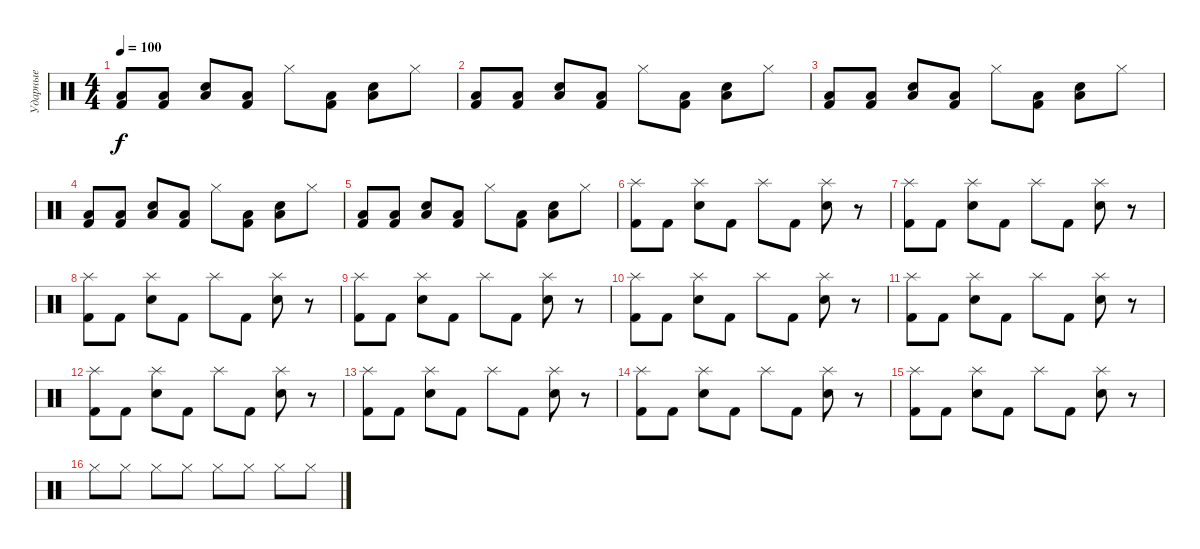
\track ("Ударные" "Ударные") {instrument percussion}
\staff {score}
\articulation defaults
\ts (4 4)
\tempo 100
\clef neutral
\ks c
("Kick (hit) 2" "Low Floor Tom (hit)").8{dy f} ("Kick (hit) 2" "Low Floor Tom (hit)").8 ("Snare (hit) 2" "Low Floor Tom (hit)").8 ("Kick (hit) 2" "Low Floor Tom (hit)").8 "Hi-Hat (closed)".8 ("Kick (hit) 2" "Low Floor Tom (hit)").8 ("Snare (hit) 2" "Low Floor Tom (hit)").8 "Hi-Hat (closed)".8 |
("Kick (hit) 2" "Low Floor Tom (hit)").8 ("Kick (hit) 2" "Low Floor Tom (hit)").8 ("Snare (hit) 2" "Low Floor Tom (hit)").8 ("Kick (hit) 2" "Low Floor Tom (hit)").8 "Hi-Hat (closed)".8 ("Kick (hit) 2" "Low Floor Tom (hit)").8 ("Snare (hit) 2" "Low Floor Tom (hit)").8 "Hi-Hat (closed)".8 |
("Kick (hit) 2" "Low Floor Tom (hit)").8 ("Kick (hit) 2" "Low Floor Tom (hit)").8 ("Snare (hit) 2" "Low Floor Tom (hit)").8 ("Kick (hit) 2" "Low Floor Tom (hit)").8 "Hi-Hat (closed)".8 ("Kick (hit) 2" "Low Floor Tom (hit)").8 ("Snare (hit) 2" "Low Floor Tom (hit)").8 "Hi-Hat (closed)".8 |
("Kick (hit) 2" "Low Floor Tom (hit)").8 ("Kick (hit) 2" "Low Floor Tom (hit)").8 ("Snare (hit) 2" "Low Floor Tom (hit)").8 ("Kick (hit) 2" "Low Floor Tom (hit)").8 "Hi-Hat (closed)".8 ("Kick (hit) 2" "Low Floor Tom (hit)").8 ("Snare (hit) 2" "Low Floor Tom (hit)").8 "Hi-Hat (closed)".8 |
("Kick (hit) 2" "Low Floor Tom (hit)").8 ("Kick (hit) 2" "Low Floor Tom (hit)").8 ("Snare (hit) 2" "Low Floor Tom (hit)").8 ("Kick (hit) 2" "Low Floor Tom (hit)").8 "Hi-Hat (closed)".8 ("Kick (hit) 2" "Low Floor Tom (hit)").8 ("Snare (hit) 2" "Low Floor Tom (hit)").8 "Hi-Hat (closed)".8 |
("Kick (hit) 2" "Splash (hit)").8 "Kick (hit) 2".8 ("Snare (hit) 2" "Splash (hit)").8 "Kick (hit) 2".8 "Splash (hit)".8 "Kick (hit) 2".8 ("Snare (hit) 2" "Splash (hit)").8 r.8 |
("Kick (hit) 2" "Splash (hit)").8 "Kick (hit) 2".8 ("Snare (hit) 2" "Splash (hit)").8 "Kick (hit) 2".8 "Splash (hit)".8 "Kick (hit) 2".8 ("Snare (hit) 2" "Splash (hit)").8 r.8 |
("Kick (hit) 2" "Splash (hit)").8 "Kick (hit) 2".8 ("Snare (hit) 2" "Splash (hit)").8 "Kick (hit) 2".8 "Splash (hit)".8 "Kick (hit) 2".8 ("Snare (hit) 2" "Splash (hit)").8 r.8 |
("Kick (hit) 2" "Splash (hit)").8 "Kick (hit) 2".8 ("Snare (hit) 2" "Splash (hit)").8 "Kick (hit) 2".8 "Splash (hit)".8 "Kick (hit) 2".8 ("Snare (hit) 2" "Splash (hit)").8 r.8 |
("Kick (hit) 2" "Splash (hit)").8 "Kick (hit) 2".8 ("Snare (hit) 2" "Splash (hit)").8 "Kick (hit) 2".8 "Splash (hit)".8 "Kick (hit) 2".8 ("Snare (hit) 2" "Splash (hit)").8 r.8 |
("Kick (hit) 2" "Splash (hit)").8 "Kick (hit) 2".8 ("Snare (hit) 2" "Splash (hit)").8 "Kick (hit) 2".8 "Splash (hit)".8 "Kick (hit) 2".8 ("Snare (hit) 2" "Splash (hit)").8 r.8 |
("Kick (hit) 2" "Splash (hit)").8 "Kick (hit) 2".8 ("Snare (hit) 2" "Splash (hit)").8 "Kick (hit) 2".8 "Splash (hit)".8 "Kick (hit) 2".8 ("Snare (hit) 2" "Splash (hit)").8 r.8 |
("Kick (hit) 2" "Splash (hit)").8 "Kick (hit) 2".8 ("Snare (hit) 2" "Splash (hit)").8 "Kick (hit) 2".8 "Splash (hit)".8 "Kick (hit) 2".8 ("Snare (hit) 2" "Splash (hit)").8 r.8 |
("Kick (hit) 2" "Splash (hit)").8 "Kick (hit) 2".8 ("Snare (hit) 2" "Splash (hit)").8 "Kick (hit) 2".8 "Splash (hit)".8 "Kick (hit) 2".8 ("Snare (hit) 2" "Splash (hit)").8 r.8 |
("Kick (hit) 2" "Splash (hit)").8 "Kick (hit) 2".8 ("Snare (hit) 2" "Splash (hit)").8 "Kick (hit) 2".8 "Splash (hit)".8 "Kick (hit) 2".8 ("Snare (hit) 2" "Splash (hit)").8 r.8 |
"Hi-Hat (closed)".8 "Hi-Hat (closed)".8 "Hi-Hat (closed)".8 "Hi-Hat (closed)".8 "Hi-Hat (closed)".8 "Hi-Hat (closed)".8 "Hi-Hat (closed)".8 "Hi-Hat (closed)".8
